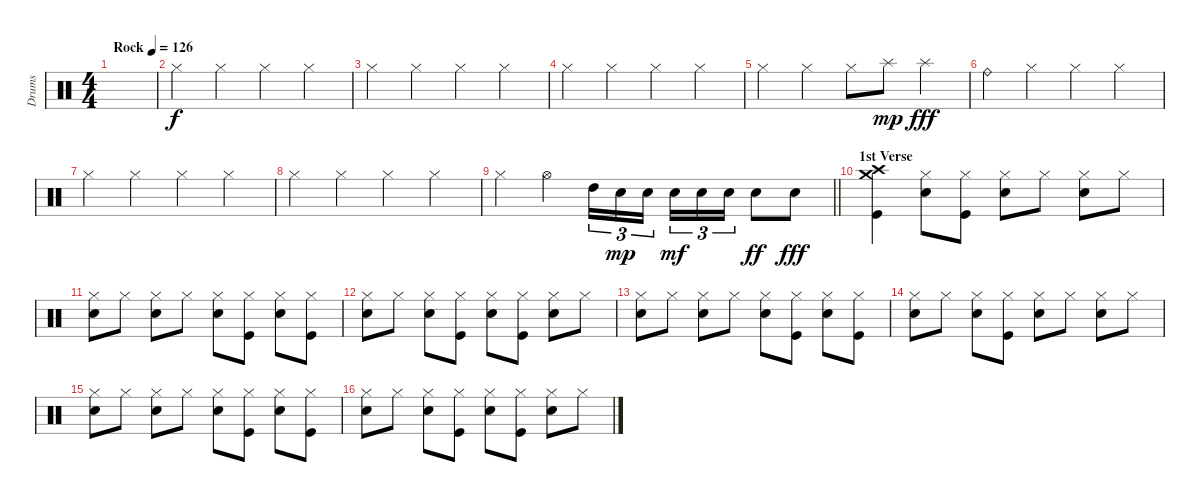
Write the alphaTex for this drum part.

\track ("Drums" "Drums") {instrument percussion}
\staff {score}
\articulation defaults
\ts (4 4)
\tempo (126 "Rock")
\clef neutral
\ks c
|
"Hi-Hat (closed)".4 "Hi-Hat (closed)".4 "Hi-Hat (closed)".4 "Hi-Hat (closed)".4 |
"Hi-Hat (closed)".4 "Hi-Hat (closed)".4 "Hi-Hat (closed)".4 "Hi-Hat (closed)".4 |
"Hi-Hat (closed)".4 "Hi-Hat (closed)".4 "Hi-Hat (closed)".4 "Hi-Hat (closed)".4 |
"Hi-Hat (closed)".4 "Hi-Hat (closed)".4 "Hi-Hat (closed)".8 "Splash (hit)".8{dy mp} "Splash (hit)".4{dy fff} |
"Ride (bell)".4 "Hi-Hat (closed)".4 "Hi-Hat (closed)".4 "Hi-Hat (closed)".4 |
"Hi-Hat (closed)".4 "Hi-Hat (closed)".4 "Hi-Hat (closed)".4 "Hi-Hat (closed)".4 |
"Hi-Hat (closed)".4 "Hi-Hat (closed)".4 "Hi-Hat (closed)".4 "Hi-Hat (closed)".4 |
\barLineRight lightlight "Hi-Hat (closed)".4 "Hi-Hat (open)".4 "High Tom (hit)".16{tu (3 2)} "Snare (hit) 2".16{tu (3 2) dy mp} "Snare (hit) 2".16{tu (3 2) beam splitsecondary} "Snare (hit) 2".16{tu (3 2) dy mf} "Snare (hit) 2".16{tu (3 2)} "Snare (hit) 2".16{tu (3 2)} "Snare (hit) 2".8{dy ff} "Snare (hit) 2".8{dy fff}
|
\section ("" "1st Verse")
("Crash medium (hit)" "Crash high (hit)" "Kick (hit)").4 ("Hi-Hat (closed)" "Snare (hit) 2").8 ("Hi-Hat (closed)" "Kick (hit)").8 ("Hi-Hat (closed)" "Snare (hit) 2").8 "Hi-Hat (closed)".8 ("Hi-Hat (closed)" "Snare (hit) 2").8 "Hi-Hat (closed)".8 |
("Hi-Hat (closed)" "Snare (hit) 2").8 "Hi-Hat (closed)".8 ("Hi-Hat (closed)" "Snare (hit) 2").8 "Hi-Hat (closed)".8 ("Hi-Hat (closed)" "Snare (hit) 2").8 ("Hi-Hat (closed)" "Kick (hit)").8 ("Hi-Hat (closed)" "Snare (hit) 2").8 ("Hi-Hat (closed)" "Kick (hit)").8 |
("Hi-Hat (closed)" "Snare (hit) 2").8 "Hi-Hat (closed)".8 ("Hi-Hat (closed)" "Snare (hit) 2").8 ("Hi-Hat (closed)" "Kick (hit)").8 ("Hi-Hat (closed)" "Snare (hit) 2").8 ("Hi-Hat (closed)" "Kick (hit)").8 ("Hi-Hat (closed)" "Snare (hit) 2").8 "Hi-Hat (closed)".8 |
("Hi-Hat (closed)" "Snare (hit) 2").8 "Hi-Hat (closed)".8 ("Hi-Hat (closed)" "Snare (hit) 2").8 "Hi-Hat (closed)".8 ("Hi-Hat (closed)" "Snare (hit) 2").8 ("Hi-Hat (closed)" "Kick (hit)").8 ("Hi-Hat (closed)" "Snare (hit) 2").8 ("Hi-Hat (closed)" "Kick (hit)").8 |
("Hi-Hat (closed)" "Snare (hit) 2").8 "Hi-Hat (closed)".8 ("Hi-Hat (closed)" "Snare (hit) 2").8 ("Hi-Hat (closed)" "Kick (hit)").8 ("Hi-Hat (closed)" "Snare (hit) 2").8 "Hi-Hat (closed)".8 ("Hi-Hat (closed)" "Snare (hit) 2").8 "Hi-Hat (closed)".8 |
("Hi-Hat (closed)" "Snare (hit) 2").8 "Hi-Hat (closed)".8 ("Hi-Hat (closed)" "Snare (hit) 2").8 "Hi-Hat (closed)".8 ("Hi-Hat (closed)" "Snare (hit) 2").8 ("Hi-Hat (closed)" "Kick (hit)").8 ("Hi-Hat (closed)" "Snare (hit) 2").8 ("Hi-Hat (closed)" "Kick (hit)").8 |
("Hi-Hat (closed)" "Snare (hit) 2").8 "Hi-Hat (closed)".8 ("Hi-Hat (closed)" "Snare (hit) 2").8 ("Hi-Hat (closed)" "Kick (hit)").8 ("Hi-Hat (closed)" "Snare (hit) 2").8 ("Hi-Hat (closed)" "Kick (hit)").8 ("Hi-Hat (closed)" "Snare (hit) 2").8 "Hi-Hat (closed)".8
